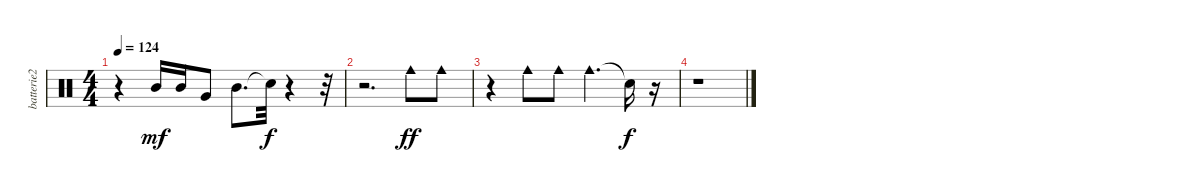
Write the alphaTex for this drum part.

\track ("batterie2" "batterie2") {instrument percussion}
\staff {score}
\articulation defaults
\ts (4 4)
\tempo 124
\clef neutral
\ks c
r.4{dy f} "Mid Tom (hit)".16{dy mf} "Mid Tom (hit)".16 "Very Low Tom (hit)".8 "Mid Tom (hit)".8{d} "Snare (hit)"{t}.32{dy f} r.4 r.32 |
r.2{d} "Cowbell medium (hit)".8{dy ff} "Cowbell medium (hit)".8 |
r.4 "Cowbell medium (hit)".8 "Cowbell medium (hit)".8 "Cowbell medium (hit)".4{d} "Snare (hit)"{t}.16{dy f} r.16 |
r.1
